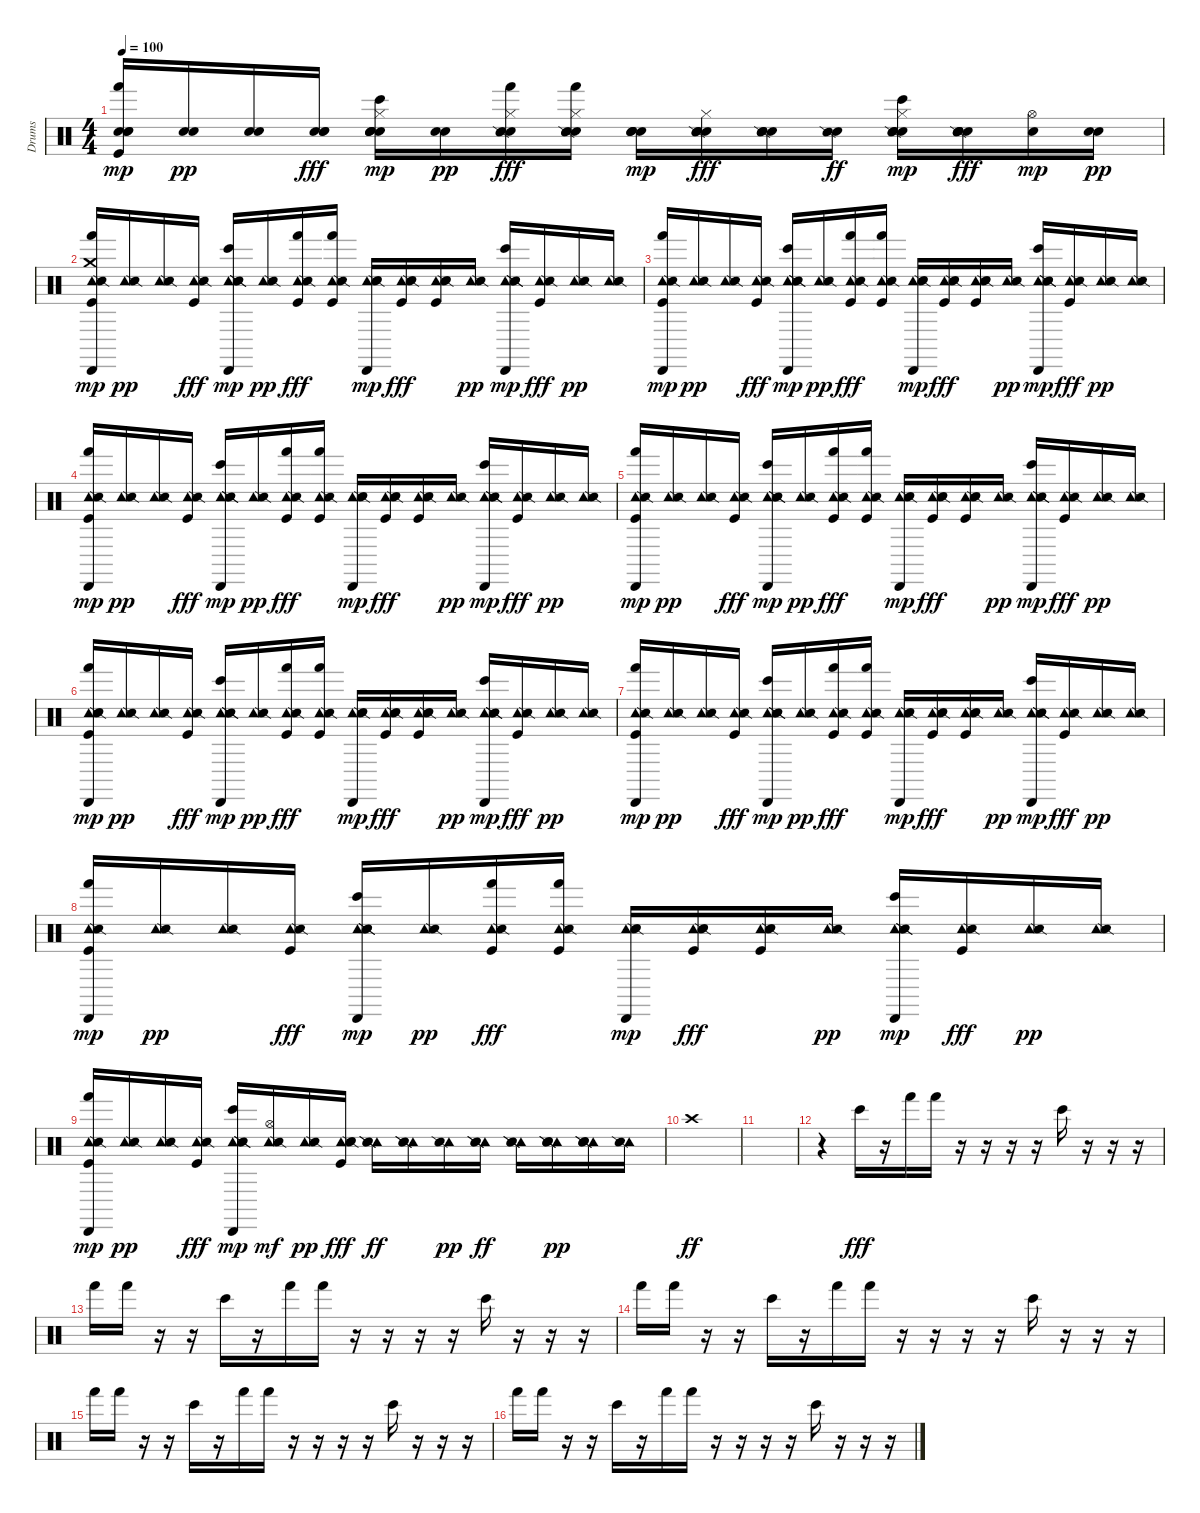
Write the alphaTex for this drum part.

\track ("Drums" "Drums") {instrument percussion}
\staff {score}
\articulation defaults
\ts (4 4)
\tempo 100
\clef neutral
\ks c
("Snare (hit)" "Snare (hit)" "Hand (hit)" "Kick (hit)" "Snare (hit)").16{dy mp} ("Snare (hit)" "Snare (hit)").16{dy pp} ("Snare (hit)" "Snare (hit)").16 ("Snare (hit)" "Snare (hit)" "Snare (hit)").16{dy fff} ("Snare (hit)" "Snare (hit)" "Bongo High (hit)" "Hi-Hat (closed)" "Snare (hit)" "Snare (hit)").16{dy mp} ("Snare (hit)" "Snare (hit)").16{dy pp} ("Snare (hit)" "Snare (side stick) 2" "Hand (hit)" "Hi-Hat (closed)" "Snare (hit)").16{dy fff} ("Snare (hit)" "Snare (side stick) 2" "Hand (hit)" "Hi-Hat (closed)" "Snare (hit)").16 ("Snare (hit)" "Snare (hit)" "Snare (hit)" "Snare (hit)").16{dy mp} ("Snare (hit)" "Snare (side stick) 2" "Snare (hit)" "Hi-Hat (closed)" "Snare (hit)").16{dy fff} ("Snare (hit) 2" "Snare (side stick) 2" "Snare (hit)" "Snare (hit)").16 ("Snare (hit) 2" "Snare (side stick) 2").16{dy ff} ("Snare (hit) 2" "Snare (side stick) 2" "Bongo High (hit)" "Hi-Hat (closed)" "Snare (hit)" "Snare (hit)").16{dy mp} ("Snare (hit) 2" "Snare (side stick) 2" "Snare (hit)" "Snare (hit)" "Snare (hit)").16{dy fff} ("Snare (hit)" "Hi-Hat (open)").16{dy mp} ("Snare (hit)" "Snare (hit)").16{dy pp} |
("Tambourine (hit)" "Snare (side stick) 2" "Hand (hit)" "Crash medium (hit)" "Kick (hit)" "Cabasa (hit)").16{dy mp} ("Tambourine (hit)" "Snare (side stick) 2").16{dy pp} ("Tambourine (hit)" "Snare (side stick) 2").16 ("Tambourine (hit)" "Snare (side stick) 2" "Kick (hit)").16{dy fff} ("Tambourine (hit)" "Snare (side stick) 2" "Bongo High (hit)" "Snare (side stick) 2" "Cabasa (hit)").16{dy mp} ("Tambourine (hit)" "Snare (side stick) 2").16{dy pp} ("Tambourine (hit)" "Snare (side stick) 2" "Hand (hit)" "Kick (hit)").16{dy fff} ("Tambourine (hit)" "Snare (side stick) 2" "Hand (hit)" "Kick (hit)").16 ("Tambourine (hit)" "Snare (side stick) 2" "Snare (hit)" "Cabasa (hit)").16{dy mp} ("Tambourine (hit)" "Snare (side stick) 2" "Snare (hit)" "Kick (hit)").16{dy fff} ("Tambourine (hit)" "Snare (side stick) 2" "Snare (hit)" "Kick (hit)").16 ("Tambourine (hit)" "Snare (side stick) 2").16{dy pp} ("Tambourine (hit)" "Snare (side stick) 2" "Bongo High (hit)" "Snare (side stick) 2" "Cabasa (hit)").16{dy mp} ("Tambourine (hit)" "Snare (side stick) 2" "Kick (hit)").16{dy fff} ("Tambourine (hit)" "Snare (side stick) 2").16{dy pp} ("Tambourine (hit)" "Snare (side stick) 2").16 |
("Tambourine (hit)" "Snare (side stick) 2" "Hand (hit)" "Kick (hit)" "Cabasa (hit)").16{dy mp} ("Tambourine (hit)" "Snare (side stick) 2").16{dy pp} ("Tambourine (hit)" "Snare (side stick) 2").16 ("Tambourine (hit)" "Snare (side stick) 2" "Kick (hit)").16{dy fff} ("Tambourine (hit)" "Snare (side stick) 2" "Bongo High (hit)" "Snare (side stick) 2" "Cabasa (hit)").16{dy mp} ("Tambourine (hit)" "Snare (side stick) 2").16{dy pp} ("Tambourine (hit)" "Snare (side stick) 2" "Hand (hit)" "Kick (hit)").16{dy fff} ("Tambourine (hit)" "Snare (side stick) 2" "Hand (hit)" "Kick (hit)").16 ("Tambourine (hit)" "Snare (side stick) 2" "Snare (hit)" "Cabasa (hit)").16{dy mp} ("Tambourine (hit)" "Snare (side stick) 2" "Snare (hit)" "Kick (hit)").16{dy fff} ("Tambourine (hit)" "Snare (side stick) 2" "Snare (hit)" "Kick (hit)").16 ("Tambourine (hit)" "Snare (side stick) 2").16{dy pp} ("Tambourine (hit)" "Snare (side stick) 2" "Bongo High (hit)" "Snare (side stick) 2" "Cabasa (hit)").16{dy mp} ("Tambourine (hit)" "Snare (side stick) 2" "Kick (hit)").16{dy fff} ("Tambourine (hit)" "Snare (side stick) 2").16{dy pp} ("Tambourine (hit)" "Snare (side stick) 2").16 |
("Tambourine (hit)" "Snare (side stick) 2" "Hand (hit)" "Kick (hit)" "Cabasa (hit)").16{dy mp} ("Tambourine (hit)" "Snare (side stick) 2").16{dy pp} ("Tambourine (hit)" "Snare (side stick) 2").16 ("Tambourine (hit)" "Snare (side stick) 2" "Kick (hit)").16{dy fff} ("Tambourine (hit)" "Snare (side stick) 2" "Bongo High (hit)" "Snare (side stick) 2" "Cabasa (hit)").16{dy mp} ("Tambourine (hit)" "Snare (side stick) 2").16{dy pp} ("Tambourine (hit)" "Snare (side stick) 2" "Hand (hit)" "Kick (hit)").16{dy fff} ("Tambourine (hit)" "Snare (side stick) 2" "Hand (hit)" "Kick (hit)").16 ("Tambourine (hit)" "Snare (side stick) 2" "Snare (hit)" "Cabasa (hit)").16{dy mp} ("Tambourine (hit)" "Snare (side stick) 2" "Snare (hit)" "Kick (hit)").16{dy fff} ("Tambourine (hit)" "Snare (side stick) 2" "Snare (hit)" "Kick (hit)").16 ("Tambourine (hit)" "Snare (side stick) 2").16{dy pp} ("Tambourine (hit)" "Snare (side stick) 2" "Bongo High (hit)" "Snare (side stick) 2" "Cabasa (hit)").16{dy mp} ("Tambourine (hit)" "Snare (side stick) 2" "Kick (hit)").16{dy fff} ("Tambourine (hit)" "Snare (side stick) 2").16{dy pp} ("Tambourine (hit)" "Snare (side stick) 2").16 |
("Tambourine (hit)" "Snare (side stick) 2" "Hand (hit)" "Kick (hit)" "Cabasa (hit)").16{dy mp} ("Tambourine (hit)" "Snare (side stick) 2").16{dy pp} ("Tambourine (hit)" "Snare (side stick) 2").16 ("Tambourine (hit)" "Snare (side stick) 2" "Kick (hit)").16{dy fff} ("Tambourine (hit)" "Snare (side stick) 2" "Bongo High (hit)" "Snare (side stick) 2" "Cabasa (hit)").16{dy mp} ("Tambourine (hit)" "Snare (side stick) 2").16{dy pp} ("Tambourine (hit)" "Snare (side stick) 2" "Hand (hit)" "Kick (hit)").16{dy fff} ("Tambourine (hit)" "Snare (side stick) 2" "Hand (hit)" "Kick (hit)").16 ("Tambourine (hit)" "Snare (side stick) 2" "Snare (hit)" "Cabasa (hit)").16{dy mp} ("Tambourine (hit)" "Snare (side stick) 2" "Snare (hit)" "Kick (hit)").16{dy fff} ("Tambourine (hit)" "Snare (side stick) 2" "Snare (hit)" "Kick (hit)").16 ("Tambourine (hit)" "Snare (side stick) 2").16{dy pp} ("Tambourine (hit)" "Snare (side stick) 2" "Bongo High (hit)" "Snare (side stick) 2" "Cabasa (hit)").16{dy mp} ("Tambourine (hit)" "Snare (side stick) 2" "Kick (hit)").16{dy fff} ("Tambourine (hit)" "Snare (side stick) 2").16{dy pp} ("Tambourine (hit)" "Snare (side stick) 2").16 |
("Tambourine (hit)" "Snare (side stick) 2" "Hand (hit)" "Snare (hit)" "Kick (hit)" "Cabasa (hit)").16{dy mp} ("Tambourine (hit)" "Snare (side stick) 2").16{dy pp} ("Tambourine (hit)" "Snare (side stick) 2").16 ("Tambourine (hit)" "Snare (side stick) 2" "Kick (hit)").16{dy fff} ("Tambourine (hit)" "Snare (side stick) 2" "Bongo High (hit)" "Snare (side stick) 2" "Cabasa (hit)").16{dy mp} ("Tambourine (hit)" "Snare (side stick) 2").16{dy pp} ("Tambourine (hit)" "Snare (side stick) 2" "Hand (hit)" "Kick (hit)").16{dy fff} ("Tambourine (hit)" "Snare (side stick) 2" "Hand (hit)" "Kick (hit)").16 ("Tambourine (hit)" "Snare (side stick) 2" "Snare (hit)" "Cabasa (hit)").16{dy mp} ("Tambourine (hit)" "Snare (side stick) 2" "Snare (hit)" "Kick (hit)").16{dy fff} ("Tambourine (hit)" "Snare (side stick) 2" "Snare (hit)" "Kick (hit)").16 ("Tambourine (hit)" "Snare (side stick) 2").16{dy pp} ("Tambourine (hit)" "Snare (side stick) 2" "Bongo High (hit)" "Snare (side stick) 2" "Cabasa (hit)").16{dy mp} ("Tambourine (hit)" "Snare (side stick) 2" "Kick (hit)").16{dy fff} ("Tambourine (hit)" "Snare (side stick) 2").16{dy pp} ("Tambourine (hit)" "Snare (side stick) 2").16 |
("Tambourine (hit)" "Snare (side stick) 2" "Hand (hit)" "Kick (hit)" "Cabasa (hit)").16{dy mp} ("Tambourine (hit)" "Snare (side stick) 2").16{dy pp} ("Tambourine (hit)" "Snare (side stick) 2").16 ("Tambourine (hit)" "Snare (side stick) 2" "Kick (hit)").16{dy fff} ("Tambourine (hit)" "Snare (side stick) 2" "Bongo High (hit)" "Snare (side stick) 2" "Cabasa (hit)").16{dy mp} ("Tambourine (hit)" "Snare (side stick) 2").16{dy pp} ("Tambourine (hit)" "Snare (side stick) 2" "Hand (hit)" "Kick (hit)").16{dy fff} ("Tambourine (hit)" "Snare (side stick) 2" "Hand (hit)" "Kick (hit)").16 ("Tambourine (hit)" "Snare (side stick) 2" "Snare (hit)" "Cabasa (hit)").16{dy mp} ("Tambourine (hit)" "Snare (side stick) 2" "Snare (hit)" "Kick (hit)").16{dy fff} ("Tambourine (hit)" "Snare (side stick) 2" "Snare (hit)" "Kick (hit)").16 ("Tambourine (hit)" "Snare (side stick) 2").16{dy pp} ("Tambourine (hit)" "Snare (side stick) 2" "Bongo High (hit)" "Snare (side stick) 2" "Cabasa (hit)").16{dy mp} ("Tambourine (hit)" "Snare (side stick) 2" "Kick (hit)").16{dy fff} ("Tambourine (hit)" "Snare (side stick) 2").16{dy pp} ("Tambourine (hit)" "Snare (side stick) 2").16 |
("Tambourine (hit)" "Snare (side stick) 2" "Hand (hit)" "Kick (hit)" "Cabasa (hit)").16{dy mp} ("Tambourine (hit)" "Snare (side stick) 2").16{dy pp} ("Tambourine (hit)" "Snare (side stick) 2").16 ("Tambourine (hit)" "Snare (side stick) 2" "Kick (hit)").16{dy fff} ("Tambourine (hit)" "Snare (side stick) 2" "Bongo High (hit)" "Snare (side stick) 2" "Cabasa (hit)").16{dy mp} ("Tambourine (hit)" "Snare (side stick) 2").16{dy pp} ("Tambourine (hit)" "Snare (side stick) 2" "Hand (hit)" "Kick (hit)").16{dy fff} ("Tambourine (hit)" "Snare (side stick) 2" "Hand (hit)" "Kick (hit)").16 ("Tambourine (hit)" "Snare (side stick) 2" "Snare (hit)" "Cabasa (hit)").16{dy mp} ("Tambourine (hit)" "Snare (side stick) 2" "Snare (hit)" "Kick (hit)").16{dy fff} ("Tambourine (hit)" "Snare (side stick) 2" "Snare (hit)" "Kick (hit)").16 ("Tambourine (hit)" "Snare (side stick) 2").16{dy pp} ("Tambourine (hit)" "Snare (side stick) 2" "Bongo High (hit)" "Snare (side stick) 2" "Cabasa (hit)").16{dy mp} ("Tambourine (hit)" "Snare (side stick) 2" "Kick (hit)").16{dy fff} ("Tambourine (hit)" "Snare (side stick) 2").16{dy pp} ("Tambourine (hit)" "Snare (side stick) 2").16 |
("Tambourine (hit)" "Snare (side stick) 2" "Hand (hit)" "Kick (hit)" "Cabasa (hit)").16{dy mp} ("Tambourine (hit)" "Snare (side stick) 2").16{dy pp} ("Tambourine (hit)" "Snare (side stick) 2").16 ("Tambourine (hit)" "Snare (side stick) 2" "Kick (hit)").16{dy fff} ("Tambourine (hit)" "Snare (side stick) 2" "Bongo High (hit)" "Snare (side stick) 2" "Cabasa (hit)").16{dy mp} ("Tambourine (hit)" "Snare (side stick) 2" "Hi-Hat (open)").16{dy mf} ("Tambourine (hit)" "Snare (side stick) 2").16{dy pp} ("Tambourine (hit)" "Snare (side stick) 2" "Snare (hit)" "Kick (hit)").16{dy fff} ("Tambourine (hit)" "Snare (side stick) 2" "Snare (side stick) 2").16{dy ff} ("Tambourine (hit)" "Snare (side stick) 2" "Snare (side stick) 2").16 ("Tambourine (hit)" "Snare (side stick) 2").16{dy pp} ("Tambourine (hit)" "Snare (side stick) 2" "Snare (side stick) 2").16{dy ff} ("Tambourine (hit)" "Snare (side stick) 2" "Snare (side stick) 2").16 ("Tambourine (hit)" "Snare (side stick) 2" "Snare (side stick) 2" "Snare (hit) 2").16{dy pp} ("Tambourine (hit)" "Snare (side stick) 2" "Snare (side stick) 2" "Snare (hit) 2").16 ("Tambourine (hit)" "Snare (side stick) 2").16 |
"Crash high (hit)".1{dy ff} |
|
r.4 "Bongo High (hit)".16{dy fff} r.16 "Hand (hit)".16 "Hand (hit)".16 r.16 r.16 r.16 r.16 "Bongo High (hit)".16 r.16 r.16 r.16 |
"Hand (hit)".16 "Hand (hit)".16 r.16 r.16 "Bongo High (hit)".16 r.16 "Hand (hit)".16 "Hand (hit)".16 r.16 r.16 r.16 r.16 "Bongo High (hit)".16 r.16 r.16 r.16 |
"Hand (hit)".16 "Hand (hit)".16 r.16 r.16 "Bongo High (hit)".16 r.16 "Hand (hit)".16 "Hand (hit)".16 r.16 r.16 r.16 r.16 "Bongo High (hit)".16 r.16 r.16 r.16 |
"Hand (hit)".16 "Hand (hit)".16 r.16 r.16 "Bongo High (hit)".16 r.16 "Hand (hit)".16 "Hand (hit)".16 r.16 r.16 r.16 r.16 "Bongo High (hit)".16 r.16 r.16 r.16 |
"Hand (hit)".16 "Hand (hit)".16 r.16 r.16 "Bongo High (hit)".16 r.16 "Hand (hit)".16 "Hand (hit)".16 r.16 r.16 r.16 r.16 "Bongo High (hit)".16 r.16 r.16 r.16
